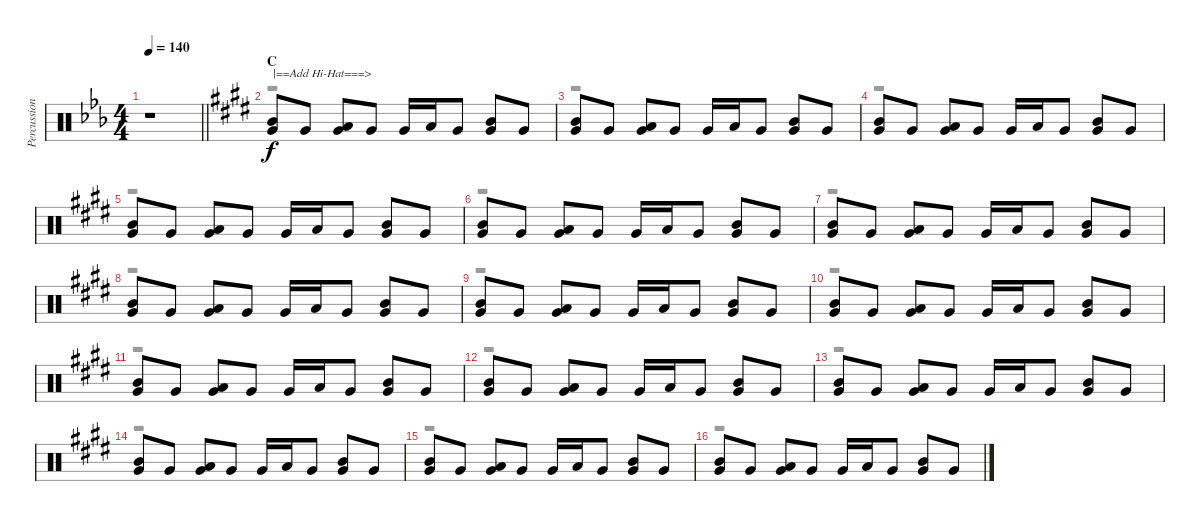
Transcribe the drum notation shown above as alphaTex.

\track ("Percussion" "Percussion") {instrument percussion}
\staff {score}
\articulation defaults
\voice
\ts (4 4)
\tempo 140
\clef neutral
\barLineRight lightlight
\ks eb
r.1{dy f} |
\section ("" "C")
\ks e
("Mid Tom (hit)" "Very Low Tom (hit)").8{txt "|==Add Hi-Hat===>"} "Very Low Tom (hit)".8 ("Low Tom (hit)" "Very Low Tom (hit)").8 "Very Low Tom (hit)".8 "Very Low Tom (hit)".16 "Low Tom (hit)".16 "Very Low Tom (hit)".8 ("Mid Tom (hit)" "Very Low Tom (hit)").8 "Very Low Tom (hit)".8 |
("Mid Tom (hit)" "Very Low Tom (hit)").8 "Very Low Tom (hit)".8 ("Low Tom (hit)" "Very Low Tom (hit)").8 "Very Low Tom (hit)".8 "Very Low Tom (hit)".16 "Low Tom (hit)".16 "Very Low Tom (hit)".8 ("Mid Tom (hit)" "Very Low Tom (hit)").8 "Very Low Tom (hit)".8 |
("Mid Tom (hit)" "Very Low Tom (hit)").8 "Very Low Tom (hit)".8 ("Low Tom (hit)" "Very Low Tom (hit)").8 "Very Low Tom (hit)".8 "Very Low Tom (hit)".16 "Low Tom (hit)".16 "Very Low Tom (hit)".8 ("Mid Tom (hit)" "Very Low Tom (hit)").8 "Very Low Tom (hit)".8 |
("Mid Tom (hit)" "Very Low Tom (hit)").8 "Very Low Tom (hit)".8 ("Low Tom (hit)" "Very Low Tom (hit)").8 "Very Low Tom (hit)".8 "Very Low Tom (hit)".16 "Low Tom (hit)".16 "Very Low Tom (hit)".8 ("Mid Tom (hit)" "Very Low Tom (hit)").8 "Very Low Tom (hit)".8 |
("Mid Tom (hit)" "Very Low Tom (hit)").8 "Very Low Tom (hit)".8 ("Low Tom (hit)" "Very Low Tom (hit)").8 "Very Low Tom (hit)".8 "Very Low Tom (hit)".16 "Low Tom (hit)".16 "Very Low Tom (hit)".8 ("Mid Tom (hit)" "Very Low Tom (hit)").8 "Very Low Tom (hit)".8 |
("Mid Tom (hit)" "Very Low Tom (hit)").8 "Very Low Tom (hit)".8 ("Low Tom (hit)" "Very Low Tom (hit)").8 "Very Low Tom (hit)".8 "Very Low Tom (hit)".16 "Low Tom (hit)".16 "Very Low Tom (hit)".8 ("Mid Tom (hit)" "Very Low Tom (hit)").8 "Very Low Tom (hit)".8 |
("Mid Tom (hit)" "Very Low Tom (hit)").8 "Very Low Tom (hit)".8 ("Low Tom (hit)" "Very Low Tom (hit)").8 "Very Low Tom (hit)".8 "Very Low Tom (hit)".16 "Low Tom (hit)".16 "Very Low Tom (hit)".8 ("Mid Tom (hit)" "Very Low Tom (hit)").8 "Very Low Tom (hit)".8 |
("Mid Tom (hit)" "Very Low Tom (hit)").8 "Very Low Tom (hit)".8 ("Low Tom (hit)" "Very Low Tom (hit)").8 "Very Low Tom (hit)".8 "Very Low Tom (hit)".16 "Low Tom (hit)".16 "Very Low Tom (hit)".8 ("Mid Tom (hit)" "Very Low Tom (hit)").8 "Very Low Tom (hit)".8 |
("Mid Tom (hit)" "Very Low Tom (hit)").8 "Very Low Tom (hit)".8 ("Low Tom (hit)" "Very Low Tom (hit)").8 "Very Low Tom (hit)".8 "Very Low Tom (hit)".16 "Low Tom (hit)".16 "Very Low Tom (hit)".8 ("Mid Tom (hit)" "Very Low Tom (hit)").8 "Very Low Tom (hit)".8 |
("Mid Tom (hit)" "Very Low Tom (hit)").8 "Very Low Tom (hit)".8 ("Low Tom (hit)" "Very Low Tom (hit)").8 "Very Low Tom (hit)".8 "Very Low Tom (hit)".16 "Low Tom (hit)".16 "Very Low Tom (hit)".8 ("Mid Tom (hit)" "Very Low Tom (hit)").8 "Very Low Tom (hit)".8 |
("Mid Tom (hit)" "Very Low Tom (hit)").8 "Very Low Tom (hit)".8 ("Low Tom (hit)" "Very Low Tom (hit)").8 "Very Low Tom (hit)".8 "Very Low Tom (hit)".16 "Low Tom (hit)".16 "Very Low Tom (hit)".8 ("Mid Tom (hit)" "Very Low Tom (hit)").8 "Very Low Tom (hit)".8 |
("Mid Tom (hit)" "Very Low Tom (hit)").8 "Very Low Tom (hit)".8 ("Low Tom (hit)" "Very Low Tom (hit)").8 "Very Low Tom (hit)".8 "Very Low Tom (hit)".16 "Low Tom (hit)".16 "Very Low Tom (hit)".8 ("Mid Tom (hit)" "Very Low Tom (hit)").8 "Very Low Tom (hit)".8 |
("Mid Tom (hit)" "Very Low Tom (hit)").8 "Very Low Tom (hit)".8 ("Low Tom (hit)" "Very Low Tom (hit)").8 "Very Low Tom (hit)".8 "Very Low Tom (hit)".16 "Low Tom (hit)".16 "Very Low Tom (hit)".8 ("Mid Tom (hit)" "Very Low Tom (hit)").8 "Very Low Tom (hit)".8 |
("Mid Tom (hit)" "Very Low Tom (hit)").8 "Very Low Tom (hit)".8 ("Low Tom (hit)" "Very Low Tom (hit)").8 "Very Low Tom (hit)".8 "Very Low Tom (hit)".16 "Low Tom (hit)".16 "Very Low Tom (hit)".8 ("Mid Tom (hit)" "Very Low Tom (hit)").8 "Very Low Tom (hit)".8 |
("Mid Tom (hit)" "Very Low Tom (hit)").8 "Very Low Tom (hit)".8 ("Low Tom (hit)" "Very Low Tom (hit)").8 "Very Low Tom (hit)".8 "Very Low Tom (hit)".16 "Low Tom (hit)".16 "Very Low Tom (hit)".8 ("Mid Tom (hit)" "Very Low Tom (hit)").8 "Very Low Tom (hit)".8
\voice
\clef neutral
\ottava regular
\simile none
\barLineRight lightlight
\ks eb
r.1{dy fff} |
\ks e
r.1 |
r.1 |
r.1 |
r.1 |
r.1 |
r.1 |
r.1 |
r.1 |
r.1 |
r.1 |
r.1 |
r.1 |
r.1 |
r.1 |
r.1
